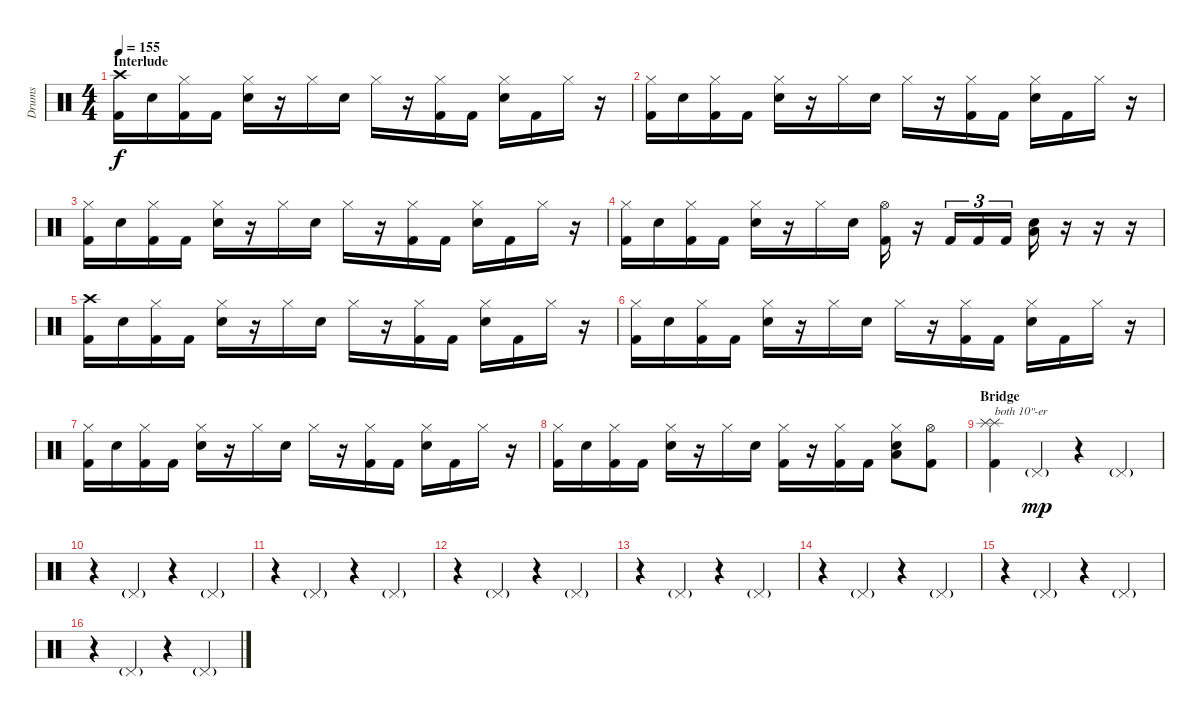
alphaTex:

\track ("Drums" "Drums") {instrument percussion}
\staff {score}
\articulation defaults
\ts (4 4)
\section ("" "Interlude")
\tempo 155
\clef neutral
\ks c
("Crash high (hit)" "Kick (hit) 2").16{dy f} "Electric Snare (hit)".16 ("Hi-Hat (closed)" "Kick (hit) 2").16 "Kick (hit) 2".16 ("Hi-Hat (closed)" "Electric Snare (hit)").16 r.16 "Hi-Hat (closed)".16 "Electric Snare (hit)".16 "Hi-Hat (closed)".16 r.16 ("Hi-Hat (closed)" "Kick (hit) 2").16 "Kick (hit) 2".16 ("Hi-Hat (closed)" "Electric Snare (hit)").16 "Kick (hit) 2".16 "Hi-Hat (closed)".16 r.16 |
("Hi-Hat (closed)" "Kick (hit) 2").16 "Electric Snare (hit)".16 ("Hi-Hat (closed)" "Kick (hit) 2").16 "Kick (hit) 2".16 ("Hi-Hat (closed)" "Electric Snare (hit)").16 r.16 "Hi-Hat (closed)".16 "Electric Snare (hit)".16 "Hi-Hat (closed)".16 r.16 ("Hi-Hat (closed)" "Kick (hit) 2").16 "Kick (hit) 2".16 ("Hi-Hat (closed)" "Electric Snare (hit)").16 "Kick (hit) 2".16 "Hi-Hat (closed)".16 r.16 |
("Hi-Hat (closed)" "Kick (hit) 2").16 "Electric Snare (hit)".16 ("Hi-Hat (closed)" "Kick (hit) 2").16 "Kick (hit) 2".16 ("Hi-Hat (closed)" "Electric Snare (hit)").16 r.16 "Hi-Hat (closed)".16 "Electric Snare (hit)".16 "Hi-Hat (closed)".16 r.16 ("Hi-Hat (closed)" "Kick (hit) 2").16 "Kick (hit) 2".16 ("Hi-Hat (closed)" "Electric Snare (hit)").16 "Kick (hit) 2".16 "Hi-Hat (closed)".16 r.16 |
("Hi-Hat (closed)" "Kick (hit) 2").16 "Electric Snare (hit)".16 ("Hi-Hat (closed)" "Kick (hit) 2").16 "Kick (hit) 2".16 ("Hi-Hat (closed)" "Electric Snare (hit)").16 r.16 "Hi-Hat (closed)".16 "Electric Snare (hit)".16 ("Hi-Hat (open)" "Kick (hit) 2").16 r.16 "Kick (hit) 2".16{tu (3 2)} "Kick (hit) 2".16{tu (3 2)} "Kick (hit) 2".16{tu (3 2)} ("Electric Snare (hit)" "Low Tom (hit)").16 r.16 r.16 r.16 |
("Crash high (hit)" "Kick (hit) 2").16 "Electric Snare (hit)".16 ("Hi-Hat (closed)" "Kick (hit) 2").16 "Kick (hit) 2".16 ("Hi-Hat (closed)" "Electric Snare (hit)").16 r.16 "Hi-Hat (closed)".16 "Electric Snare (hit)".16 "Hi-Hat (closed)".16 r.16 ("Hi-Hat (closed)" "Kick (hit) 2").16 "Kick (hit) 2".16 ("Hi-Hat (closed)" "Electric Snare (hit)").16 "Kick (hit) 2".16 "Hi-Hat (closed)".16 r.16 |
("Hi-Hat (closed)" "Kick (hit) 2").16 "Electric Snare (hit)".16 ("Hi-Hat (closed)" "Kick (hit) 2").16 "Kick (hit) 2".16 ("Hi-Hat (closed)" "Electric Snare (hit)").16 r.16 "Hi-Hat (closed)".16 "Electric Snare (hit)".16 "Hi-Hat (closed)".16 r.16 ("Hi-Hat (closed)" "Kick (hit) 2").16 "Kick (hit) 2".16 ("Hi-Hat (closed)" "Electric Snare (hit)").16 "Kick (hit) 2".16 "Hi-Hat (closed)".16 r.16 |
("Hi-Hat (closed)" "Kick (hit) 2").16 "Electric Snare (hit)".16 ("Hi-Hat (closed)" "Kick (hit) 2").16 "Kick (hit) 2".16 ("Hi-Hat (closed)" "Electric Snare (hit)").16 r.16 "Hi-Hat (closed)".16 "Electric Snare (hit)".16 "Hi-Hat (closed)".16 r.16 ("Hi-Hat (closed)" "Kick (hit) 2").16 "Kick (hit) 2".16 ("Hi-Hat (closed)" "Electric Snare (hit)").16 "Kick (hit) 2".16 "Hi-Hat (closed)".16 r.16 |
("Hi-Hat (closed)" "Kick (hit) 2").16 "Electric Snare (hit)".16 ("Hi-Hat (closed)" "Kick (hit) 2").16 "Kick (hit) 2".16 ("Hi-Hat (closed)" "Electric Snare (hit)").16 r.16 "Hi-Hat (closed)".16 "Electric Snare (hit)".16 ("Hi-Hat (closed)" "Kick (hit) 2").16 r.16 ("Hi-Hat (closed)" "Kick (hit) 2").16 "Kick (hit) 2".16 ("Hi-Hat (closed)" "Electric Snare (hit)" "Low Tom (hit)").8 ("Hi-Hat (open)" "Kick (hit) 2").8 |
\section ("" "Bridge")
("Splash (hit)" "Splash (hit)" "Kick (hit) 2").4{txt "both 10\"-er"} "Pedal Hi-Hat (hit)"{g}.4{dy mp} r.4 "Pedal Hi-Hat (hit)"{g}.4 |
r.4 "Pedal Hi-Hat (hit)"{g}.4 r.4 "Pedal Hi-Hat (hit)"{g}.4 |
r.4 "Pedal Hi-Hat (hit)"{g}.4 r.4 "Pedal Hi-Hat (hit)"{g}.4 |
r.4 "Pedal Hi-Hat (hit)"{g}.4 r.4 "Pedal Hi-Hat (hit)"{g}.4 |
r.4 "Pedal Hi-Hat (hit)"{g}.4 r.4 "Pedal Hi-Hat (hit)"{g}.4 |
r.4 "Pedal Hi-Hat (hit)"{g}.4 r.4 "Pedal Hi-Hat (hit)"{g}.4 |
r.4 "Pedal Hi-Hat (hit)"{g}.4 r.4 "Pedal Hi-Hat (hit)"{g}.4 |
r.4 "Pedal Hi-Hat (hit)"{g}.4 r.4 "Pedal Hi-Hat (hit)"{g}.4
